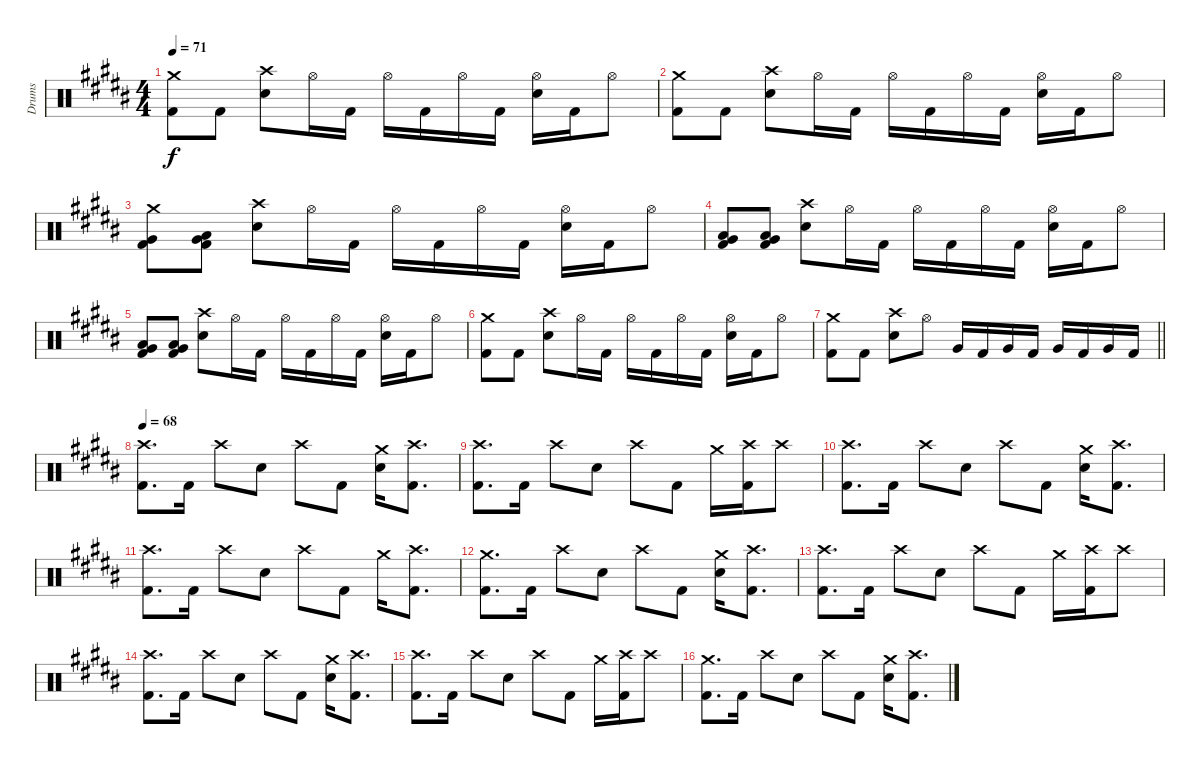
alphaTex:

\track ("Drums" "Drums") {instrument percussion}
\staff {score}
\articulation defaults
\ts (4 4)
\tempo 71
\clef neutral
\ks b
("Crash medium (hit)" "Kick (hit) 2").8{dy f} "Kick (hit) 2".8 ("Crash high (hit)" "Electric Snare (hit)").8 "Hi-Hat (open)".16 "Kick (hit) 2".16 "Hi-Hat (open)".16 "Kick (hit) 2".16 "Hi-Hat (open)".16 "Kick (hit) 2".16 ("Hi-Hat (open)" "Electric Snare (hit)").16 "Kick (hit) 2".16 "Hi-Hat (open)".8 |
("Crash medium (hit)" "Kick (hit) 2").8 "Kick (hit) 2".8 ("Crash high (hit)" "Electric Snare (hit)").8 "Hi-Hat (open)".16 "Kick (hit) 2".16 "Hi-Hat (open)".16 "Kick (hit) 2".16 "Hi-Hat (open)".16 "Kick (hit) 2".16 ("Hi-Hat (open)" "Electric Snare (hit)").16 "Kick (hit) 2".16 "Hi-Hat (open)".8 |
("Crash medium (hit)" "Very Low Tom (hit)" "Kick (hit) 2").8 ("Very Low Tom (hit)" "Low Floor Tom (hit)" "Kick (hit) 2").8 ("Crash high (hit)" "Electric Snare (hit)").8 "Hi-Hat (open)".16 "Kick (hit) 2".16 "Hi-Hat (open)".16 "Kick (hit) 2".16 "Hi-Hat (open)".16 "Kick (hit) 2".16 ("Hi-Hat (open)" "Electric Snare (hit)").16 "Kick (hit) 2".16 "Hi-Hat (open)".8 |
("Low Tom (hit)" "Very Low Tom (hit)" "Kick (hit) 2").8 ("Very Low Tom (hit)" "Low Floor Tom (hit)" "Kick (hit) 2").8 ("Crash high (hit)" "Electric Snare (hit)").8 "Hi-Hat (open)".16 "Kick (hit) 2".16 "Hi-Hat (open)".16 "Kick (hit) 2".16 "Hi-Hat (open)".16 "Kick (hit) 2".16 ("Hi-Hat (open)" "Electric Snare (hit)").16 "Kick (hit) 2".16 "Hi-Hat (open)".8 |
("Low Tom (hit)" "Very Low Tom (hit)" "Kick (hit) 2").8 ("Very Low Tom (hit)" "Low Floor Tom (hit)" "Kick (hit) 2").8 ("Crash high (hit)" "Electric Snare (hit)").8 "Hi-Hat (open)".16 "Kick (hit) 2".16 "Hi-Hat (open)".16 "Kick (hit) 2".16 "Hi-Hat (open)".16 "Kick (hit) 2".16 ("Hi-Hat (open)" "Electric Snare (hit)").16 "Kick (hit) 2".16 "Hi-Hat (open)".8 |
("Crash medium (hit)" "Kick (hit) 2").8 "Kick (hit) 2".8 ("Crash high (hit)" "Electric Snare (hit)").8 "Hi-Hat (open)".16 "Kick (hit) 2".16 "Hi-Hat (open)".16 "Kick (hit) 2".16 "Hi-Hat (open)".16 "Kick (hit) 2".16 ("Hi-Hat (open)" "Electric Snare (hit)").16 "Kick (hit) 2".16 "Hi-Hat (open)".8 |
\barLineRight lightlight
("Crash medium (hit)" "Kick (hit) 2").8 "Kick (hit) 2".8 ("Crash high (hit)" "Electric Snare (hit)").8 "Hi-Hat (open)".8 "Very Low Tom (hit)".16 "Kick (hit) 2".16 "Very Low Tom (hit)".16 "Kick (hit) 2".16 "Very Low Tom (hit)".16 "Kick (hit) 2".16 "Very Low Tom (hit)".16 "Kick (hit) 2".16 |
\tempo 68
("Crash high (hit)" "Kick (hit) 2").8{d} "Kick (hit) 2".16 "Crash high (hit)".8 "Electric Snare (hit)".8 "Crash high (hit)".8 "Kick (hit) 2".8 ("Crash medium (hit)" "Electric Snare (hit)").16 ("Crash high (hit)" "Kick (hit) 2").8{d} |
("Crash high (hit)" "Kick (hit) 2").8{d} "Kick (hit) 2".16 "Crash high (hit)".8 "Electric Snare (hit)".8 "Crash high (hit)".8 "Kick (hit) 2".8 "Crash medium (hit)".16 ("Crash high (hit)" "Kick (hit) 2").16 "Crash high (hit)".8 |
("Crash high (hit)" "Kick (hit) 2").8{d} "Kick (hit) 2".16 "Crash high (hit)".8 "Electric Snare (hit)".8 "Crash high (hit)".8 "Kick (hit) 2".8 ("Crash medium (hit)" "Electric Snare (hit)").16 ("Crash high (hit)" "Kick (hit) 2").8{d} |
("Crash high (hit)" "Kick (hit) 2").8{d} "Kick (hit) 2".16 "Crash high (hit)".8 "Electric Snare (hit)".8 "Crash high (hit)".8 "Kick (hit) 2".8 "Crash medium (hit)".16 ("Crash high (hit)" "Kick (hit) 2").8{d} |
("Crash medium (hit)" "Kick (hit) 2").8{d} "Kick (hit) 2".16 "Crash high (hit)".8 "Electric Snare (hit)".8 "Crash high (hit)".8 "Kick (hit) 2".8 ("Crash medium (hit)" "Electric Snare (hit)").16 ("Crash high (hit)" "Kick (hit) 2").8{d} |
("Crash high (hit)" "Kick (hit) 2").8{d} "Kick (hit) 2".16 "Crash high (hit)".8 "Electric Snare (hit)".8 "Crash high (hit)".8 "Kick (hit) 2".8 "Crash medium (hit)".16 ("Crash high (hit)" "Kick (hit) 2").16 "Crash high (hit)".8 |
("Crash high (hit)" "Kick (hit) 2").8{d} "Kick (hit) 2".16 "Crash high (hit)".8 "Electric Snare (hit)".8 "Crash high (hit)".8 "Kick (hit) 2".8 ("Crash medium (hit)" "Electric Snare (hit)").16 ("Crash high (hit)" "Kick (hit) 2").8{d} |
("Crash high (hit)" "Kick (hit) 2").8{d} "Kick (hit) 2".16 "Crash high (hit)".8 "Electric Snare (hit)".8 "Crash high (hit)".8 "Kick (hit) 2".8 "Crash medium (hit)".16 ("Crash high (hit)" "Kick (hit) 2").16 "Crash high (hit)".8 |
("Crash medium (hit)" "Kick (hit) 2").8{d} "Kick (hit) 2".16 "Crash high (hit)".8 "Electric Snare (hit)".8 "Crash high (hit)".8 "Kick (hit) 2".8 ("Crash medium (hit)" "Electric Snare (hit)").16 ("Crash high (hit)" "Kick (hit) 2").8{d}
